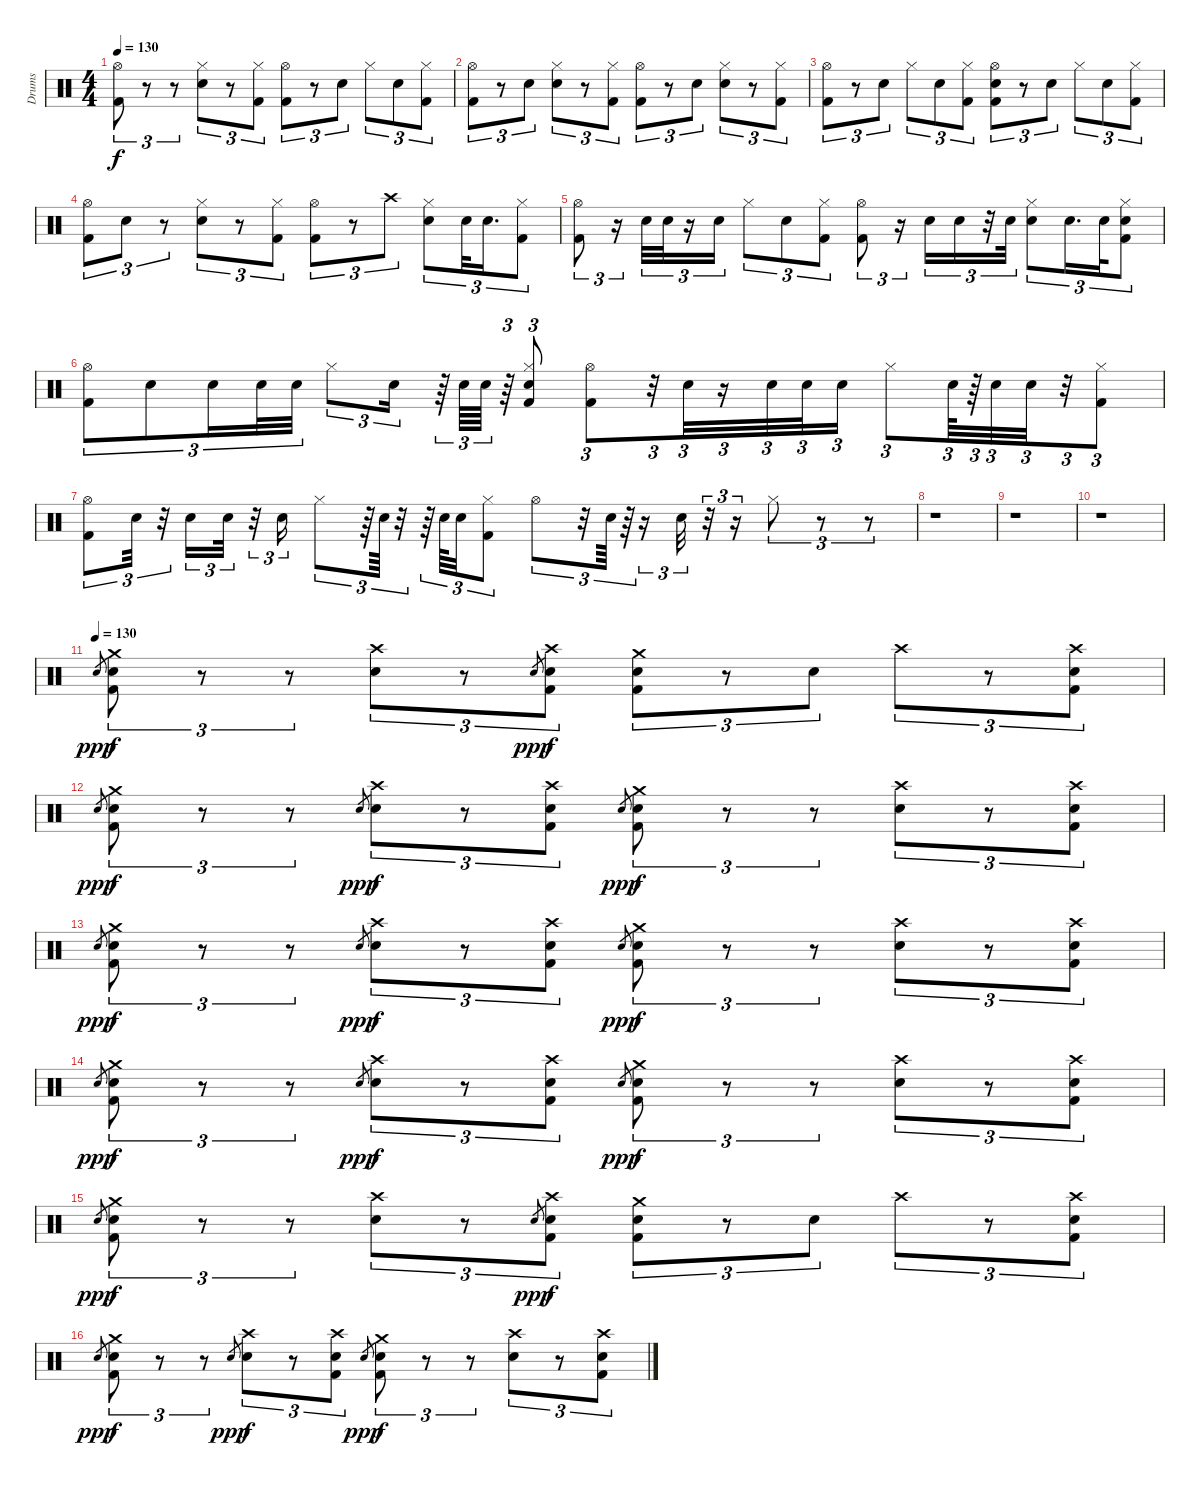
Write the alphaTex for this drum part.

\track ("Drums" "Drums") {instrument percussion}
\staff {score}
\articulation defaults
\ts (4 4)
\tempo 130
\clef neutral
\ks c
("Hi-Hat (open)" "Kick (hit) 2").8{tu (3 2) dy f} r.8{tu (3 2)} r.8{tu (3 2)} ("Hi-Hat (closed)" "Snare (hit) 2").8{tu (3 2)} r.8{tu (3 2)} ("Hi-Hat (closed)" "Kick (hit) 2").8{tu (3 2)} ("Hi-Hat (open)" "Kick (hit) 2").8{tu (3 2)} r.8{tu (3 2)} "Snare (hit) 2".8{tu (3 2)} "Hi-Hat (closed)".8{tu (3 2)} "Snare (hit) 2".8{tu (3 2)} ("Hi-Hat (closed)" "Kick (hit) 2").8{tu (3 2)} |
("Hi-Hat (open)" "Kick (hit) 2").8{tu (3 2)} r.8{tu (3 2)} "Snare (hit) 2".8{tu (3 2)} ("Hi-Hat (closed)" "Snare (hit) 2").8{tu (3 2)} r.8{tu (3 2)} ("Hi-Hat (closed)" "Kick (hit) 2").8{tu (3 2)} ("Hi-Hat (open)" "Kick (hit) 2").8{tu (3 2)} r.8{tu (3 2)} "Snare (hit) 2".8{tu (3 2)} ("Hi-Hat (closed)" "Snare (hit) 2").8{tu (3 2)} r.8{tu (3 2)} ("Hi-Hat (closed)" "Kick (hit) 2").8{tu (3 2)} |
("Hi-Hat (open)" "Kick (hit) 2").8{tu (3 2)} r.8{tu (3 2)} "Snare (hit) 2".8{tu (3 2)} "Hi-Hat (closed)".8{tu (3 2)} "Snare (hit) 2".8{tu (3 2)} ("Hi-Hat (closed)" "Kick (hit) 2").8{tu (3 2)} ("Hi-Hat (open)" "Snare (hit) 2" "Kick (hit) 2").8{tu (3 2)} r.8{tu (3 2)} "Snare (hit) 2".8{tu (3 2)} "Hi-Hat (closed)".8{tu (3 2)} "Snare (hit) 2".8{tu (3 2)} ("Hi-Hat (closed)" "Kick (hit) 2").8{tu (3 2)} |
("Hi-Hat (open)" "Kick (hit) 2").8{tu (3 2)} "Snare (hit) 2".8{tu (3 2)} r.8{tu (3 2)} ("Hi-Hat (closed)" "Snare (hit) 2").8{tu (3 2)} r.8{tu (3 2)} ("Hi-Hat (closed)" "Kick (hit) 2").8{tu (3 2)} ("Hi-Hat (open)" "Kick (hit) 2").8{tu (3 2)} r.8{tu (3 2)} "Crash high (hit)".8{tu (3 2)} ("Hi-Hat (closed)" "Snare (hit) 2").8{tu (3 2)} "Snare (hit) 2".32{tu (3 2)} "Snare (hit) 2".16{d tu (3 2)} ("Hi-Hat (closed)" "Kick (hit) 2").8{tu (3 2)} |
("Hi-Hat (open)" "Kick (hit) 2").8{tu (3 2)} r.16{tu (3 2)} "Snare (hit) 2".32{tu (3 2)} "Snare (hit) 2".32{tu (3 2)} r.16{tu (3 2)} "Snare (hit) 2".16{tu (3 2)} "Hi-Hat (closed)".8{tu (3 2)} "Snare (hit) 2".8{tu (3 2)} ("Hi-Hat (closed)" "Kick (hit) 2").8{tu (3 2)} ("Hi-Hat (open)" "Kick (hit) 2").8{tu (3 2)} r.16{tu (3 2)} "Snare (hit) 2".16{tu (3 2)} "Snare (hit) 2".16{tu (3 2)} r.32{tu (3 2)} "Snare (hit) 2".32{tu (3 2)} ("Hi-Hat (closed)" "Snare (hit) 2").8{tu (3 2)} "Snare (hit) 2".16{d tu (3 2)} "Snare (hit) 2".32{tu (3 2)} ("Hi-Hat (closed)" "Snare (hit) 2" "Kick (hit) 2").8{tu (3 2)} |
("Hi-Hat (open)" "Kick (hit) 2").8{tu (3 2)} "Snare (hit) 2".8{tu (3 2)} "Snare (hit) 2".16{tu (3 2)} "Snare (hit) 2".32{tu (3 2)} "Snare (hit) 2".32{tu (3 2)} "Hi-Hat (closed)".8{tu (3 2)} "Snare (hit) 2".16{tu (3 2)} r.64{tu (3 2)} "Snare (hit) 2".64{tu (3 2)} "Snare (hit) 2".64{tu (3 2)} r.64{tu (3 2)} ("Hi-Hat (closed)" "Snare (hit) 2" "Kick (hit) 2").8{tu (3 2)} ("Hi-Hat (open)" "Kick (hit) 2").8{tu (3 2)} r.32{tu (3 2)} "Snare (hit) 2".32{tu (3 2)} r.16{tu (3 2)} "Snare (hit) 2".32{tu (3 2)} "Snare (hit) 2".32{tu (3 2)} "Snare (hit) 2".16{tu (3 2)} "Hi-Hat (closed)".8{tu (3 2)} "Snare (hit) 2".64{tu (3 2)} r.64{tu (3 2)} "Snare (hit) 2".32{tu (3 2)} "Snare (hit) 2".32{tu (3 2)} r.32{tu (3 2)} ("Hi-Hat (closed)" "Kick (hit) 2").8{tu (3 2)} |
("Hi-Hat (open)" "Kick (hit) 2").8{tu (3 2)} "Snare (hit) 2".32{tu (3 2)} r.32{tu (3 2)} "Snare (hit) 2".16{tu (3 2)} "Snare (hit) 2".32{tu (3 2)} r.32{tu (3 2)} "Snare (hit) 2".16{tu (3 2)} "Hi-Hat (closed)".8{tu (3 2)} r.64{tu (3 2)} "Snare (hit) 2".64{tu (3 2)} r.32{tu (3 2)} r.64{tu (3 2)} "Snare (hit) 2".64{tu (3 2)} "Snare (hit) 2".32{tu (3 2)} ("Hi-Hat (closed)" "Kick (hit) 2").8{tu (3 2)} "Hi-Hat (open)".8{tu (3 2)} r.32{tu (3 2)} "Snare (hit) 2".64{tu (3 2)} r.64{tu (3 2)} r.16{tu (3 2)} "Snare (hit) 2".32{tu (3 2)} r.32{tu (3 2)} r.16{tu (3 2)} "Hi-Hat (closed)".8{tu (3 2)} r.8{tu (3 2)} r.8{tu (3 2)} |
r.1 |
r.1 |
r.1 |
\tempo (130)
"Snare (hit) 2".8{gr dy ppp} ("Crash medium (hit)" "Snare (hit) 2" "Kick (hit) 2").8{tu (3 2) dy f} r.8{tu (3 2)} r.8{tu (3 2)} ("Crash high (hit)" "Snare (hit) 2").8{tu (3 2)} r.8{tu (3 2)} "Snare (hit) 2".8{gr dy ppp} ("Crash high (hit)" "Snare (hit) 2" "Kick (hit) 2").8{tu (3 2) dy f} ("Crash medium (hit)" "Snare (hit) 2" "Kick (hit) 2").8{tu (3 2)} r.8{tu (3 2)} "Snare (hit) 2".8{tu (3 2)} "Crash high (hit)".8{tu (3 2)} r.8{tu (3 2)} ("Crash high (hit)" "Snare (hit) 2" "Kick (hit) 2").8{tu (3 2)} |
"Snare (hit) 2".8{gr dy ppp} ("Crash medium (hit)" "Snare (hit) 2" "Kick (hit) 2").8{tu (3 2) dy f} r.8{tu (3 2)} r.8{tu (3 2)} "Snare (hit) 2".8{gr dy ppp} ("Crash high (hit)" "Snare (hit) 2").8{tu (3 2) dy f} r.8{tu (3 2)} ("Crash high (hit)" "Snare (hit) 2" "Kick (hit) 2").8{tu (3 2)} "Snare (hit) 2".8{gr dy ppp} ("Crash medium (hit)" "Snare (hit) 2" "Kick (hit) 2").8{tu (3 2) dy f} r.8{tu (3 2)} r.8{tu (3 2)} ("Crash high (hit)" "Snare (hit) 2").8{tu (3 2)} r.8{tu (3 2)} ("Crash high (hit)" "Snare (hit) 2" "Kick (hit) 2").8{tu (3 2)} |
"Snare (hit) 2".8{gr dy ppp} ("Crash medium (hit)" "Snare (hit) 2" "Kick (hit) 2").8{tu (3 2) dy f} r.8{tu (3 2)} r.8{tu (3 2)} "Snare (hit) 2".8{gr dy ppp} ("Crash high (hit)" "Snare (hit) 2").8{tu (3 2) dy f} r.8{tu (3 2)} ("Crash high (hit)" "Snare (hit) 2" "Kick (hit) 2").8{tu (3 2)} "Snare (hit) 2".8{gr dy ppp} ("Crash medium (hit)" "Snare (hit) 2" "Kick (hit) 2").8{tu (3 2) dy f} r.8{tu (3 2)} r.8{tu (3 2)} ("Crash high (hit)" "Snare (hit) 2").8{tu (3 2)} r.8{tu (3 2)} ("Crash high (hit)" "Snare (hit) 2" "Kick (hit) 2").8{tu (3 2)} |
"Snare (hit) 2".8{gr dy ppp} ("Crash medium (hit)" "Snare (hit) 2" "Kick (hit) 2").8{tu (3 2) dy f} r.8{tu (3 2)} r.8{tu (3 2)} "Snare (hit) 2".8{gr dy ppp} ("Crash high (hit)" "Snare (hit) 2").8{tu (3 2) dy f} r.8{tu (3 2)} ("Crash high (hit)" "Snare (hit) 2" "Kick (hit) 2").8{tu (3 2)} "Snare (hit) 2".8{gr dy ppp} ("Crash medium (hit)" "Snare (hit) 2" "Kick (hit) 2").8{tu (3 2) dy f} r.8{tu (3 2)} r.8{tu (3 2)} ("Crash high (hit)" "Snare (hit) 2").8{tu (3 2)} r.8{tu (3 2)} ("Crash high (hit)" "Snare (hit) 2" "Kick (hit) 2").8{tu (3 2)} |
"Snare (hit) 2".8{gr dy ppp} ("Crash medium (hit)" "Snare (hit) 2" "Kick (hit) 2").8{tu (3 2) dy f} r.8{tu (3 2)} r.8{tu (3 2)} ("Crash high (hit)" "Snare (hit) 2").8{tu (3 2)} r.8{tu (3 2)} "Snare (hit) 2".8{gr dy ppp} ("Crash high (hit)" "Snare (hit) 2" "Kick (hit) 2").8{tu (3 2) dy f} ("Crash medium (hit)" "Snare (hit) 2" "Kick (hit) 2").8{tu (3 2)} r.8{tu (3 2)} "Snare (hit) 2".8{tu (3 2)} "Crash high (hit)".8{tu (3 2)} r.8{tu (3 2)} ("Crash high (hit)" "Snare (hit) 2" "Kick (hit) 2").8{tu (3 2)} |
"Snare (hit) 2".8{gr dy ppp} ("Crash medium (hit)" "Snare (hit) 2" "Kick (hit) 2").8{tu (3 2) dy f} r.8{tu (3 2)} r.8{tu (3 2)} "Snare (hit) 2".8{gr dy ppp} ("Crash high (hit)" "Snare (hit) 2").8{tu (3 2) dy f} r.8{tu (3 2)} ("Crash high (hit)" "Snare (hit) 2" "Kick (hit) 2").8{tu (3 2)} "Snare (hit) 2".8{gr dy ppp} ("Crash medium (hit)" "Snare (hit) 2" "Kick (hit) 2").8{tu (3 2) dy f} r.8{tu (3 2)} r.8{tu (3 2)} ("Crash high (hit)" "Snare (hit) 2").8{tu (3 2)} r.8{tu (3 2)} ("Crash high (hit)" "Snare (hit) 2" "Kick (hit) 2").8{tu (3 2)}
